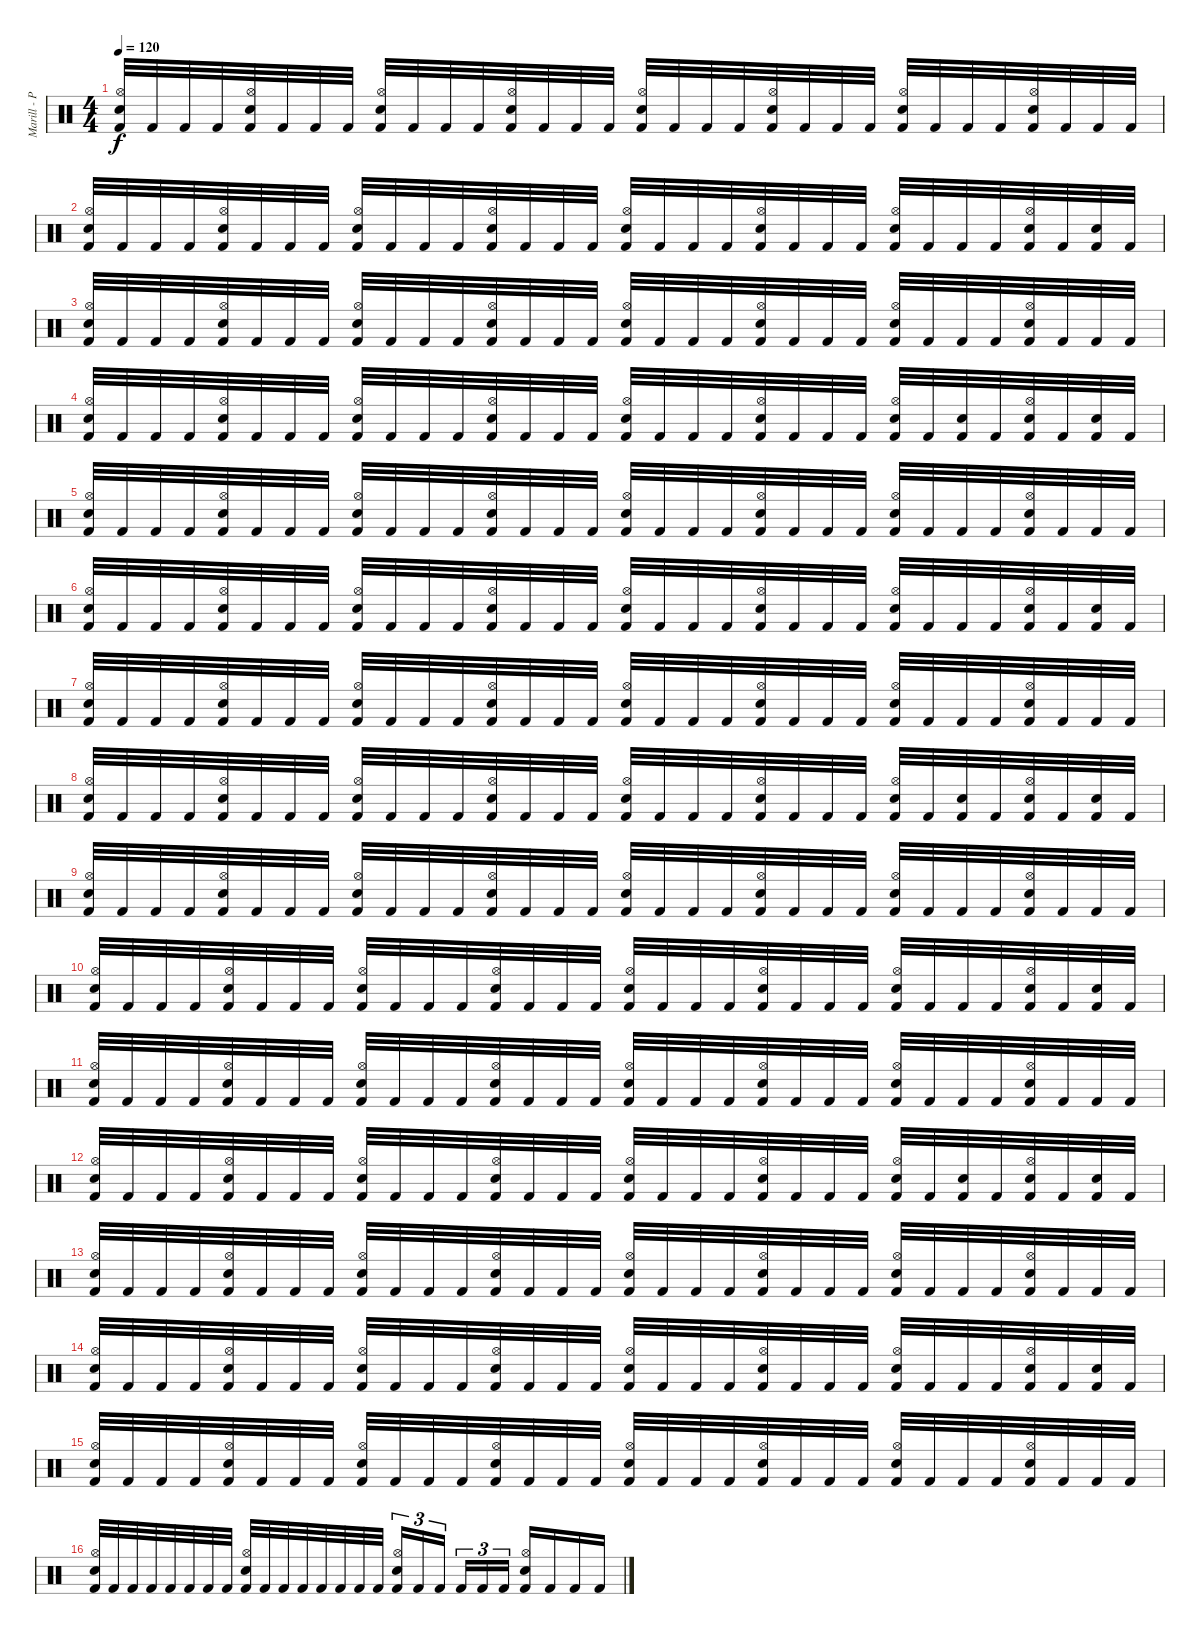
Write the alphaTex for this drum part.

\track ("Marill - Percussion" "Marill - P") {instrument percussion}
\staff {score}
\articulation defaults
\ts (4 4)
\tempo 120
\clef neutral
\ks c
("Snare (hit) 2" "Hi-Hat (open)" "Kick (hit) 2").32{dy f} "Kick (hit) 2".32 "Kick (hit) 2".32 "Kick (hit) 2".32 ("Snare (hit) 2" "Hi-Hat (open)" "Kick (hit) 2").32 "Kick (hit) 2".32 "Kick (hit) 2".32 "Kick (hit) 2".32 ("Snare (hit) 2" "Hi-Hat (open)" "Kick (hit) 2").32 "Kick (hit) 2".32 "Kick (hit) 2".32 "Kick (hit) 2".32 ("Snare (hit) 2" "Hi-Hat (open)" "Kick (hit) 2").32 "Kick (hit) 2".32 "Kick (hit) 2".32 "Kick (hit) 2".32 ("Snare (hit) 2" "Hi-Hat (open)" "Kick (hit) 2").32 "Kick (hit) 2".32 "Kick (hit) 2".32 "Kick (hit) 2".32 ("Snare (hit) 2" "Hi-Hat (open)" "Kick (hit) 2").32 "Kick (hit) 2".32 "Kick (hit) 2".32 "Kick (hit) 2".32 ("Snare (hit) 2" "Hi-Hat (open)" "Kick (hit) 2").32 "Kick (hit) 2".32 "Kick (hit) 2".32 "Kick (hit) 2".32 ("Snare (hit) 2" "Hi-Hat (open)" "Kick (hit) 2").32 "Kick (hit) 2".32 "Kick (hit) 2".32 "Kick (hit) 2".32 |
("Snare (hit) 2" "Hi-Hat (open)" "Kick (hit) 2").32 "Kick (hit) 2".32 "Kick (hit) 2".32 "Kick (hit) 2".32 ("Snare (hit) 2" "Hi-Hat (open)" "Kick (hit) 2").32 "Kick (hit) 2".32 "Kick (hit) 2".32 "Kick (hit) 2".32 ("Snare (hit) 2" "Hi-Hat (open)" "Kick (hit) 2").32 "Kick (hit) 2".32 "Kick (hit) 2".32 "Kick (hit) 2".32 ("Snare (hit) 2" "Hi-Hat (open)" "Kick (hit) 2").32 "Kick (hit) 2".32 "Kick (hit) 2".32 "Kick (hit) 2".32 ("Snare (hit) 2" "Hi-Hat (open)" "Kick (hit) 2").32 "Kick (hit) 2".32 "Kick (hit) 2".32 "Kick (hit) 2".32 ("Snare (hit) 2" "Hi-Hat (open)" "Kick (hit) 2").32 "Kick (hit) 2".32 "Kick (hit) 2".32 "Kick (hit) 2".32 ("Snare (hit) 2" "Hi-Hat (open)" "Kick (hit) 2").32 "Kick (hit) 2".32 "Kick (hit) 2".32 "Kick (hit) 2".32 ("Snare (hit) 2" "Hi-Hat (open)" "Kick (hit) 2").32 "Kick (hit) 2".32 ("Snare (hit) 2" "Kick (hit) 2").32 "Kick (hit) 2".32 |
("Snare (hit) 2" "Hi-Hat (open)" "Kick (hit) 2").32 "Kick (hit) 2".32 "Kick (hit) 2".32 "Kick (hit) 2".32 ("Snare (hit) 2" "Hi-Hat (open)" "Kick (hit) 2").32 "Kick (hit) 2".32 "Kick (hit) 2".32 "Kick (hit) 2".32 ("Snare (hit) 2" "Hi-Hat (open)" "Kick (hit) 2").32 "Kick (hit) 2".32 "Kick (hit) 2".32 "Kick (hit) 2".32 ("Snare (hit) 2" "Hi-Hat (open)" "Kick (hit) 2").32 "Kick (hit) 2".32 "Kick (hit) 2".32 "Kick (hit) 2".32 ("Snare (hit) 2" "Hi-Hat (open)" "Kick (hit) 2").32 "Kick (hit) 2".32 "Kick (hit) 2".32 "Kick (hit) 2".32 ("Snare (hit) 2" "Hi-Hat (open)" "Kick (hit) 2").32 "Kick (hit) 2".32 "Kick (hit) 2".32 "Kick (hit) 2".32 ("Snare (hit) 2" "Hi-Hat (open)" "Kick (hit) 2").32 "Kick (hit) 2".32 "Kick (hit) 2".32 "Kick (hit) 2".32 ("Snare (hit) 2" "Hi-Hat (open)" "Kick (hit) 2").32 "Kick (hit) 2".32 "Kick (hit) 2".32 "Kick (hit) 2".32 |
("Snare (hit) 2" "Hi-Hat (open)" "Kick (hit) 2").32 "Kick (hit) 2".32 "Kick (hit) 2".32 "Kick (hit) 2".32 ("Snare (hit) 2" "Hi-Hat (open)" "Kick (hit) 2").32 "Kick (hit) 2".32 "Kick (hit) 2".32 "Kick (hit) 2".32 ("Snare (hit) 2" "Hi-Hat (open)" "Kick (hit) 2").32 "Kick (hit) 2".32 "Kick (hit) 2".32 "Kick (hit) 2".32 ("Snare (hit) 2" "Hi-Hat (open)" "Kick (hit) 2").32 "Kick (hit) 2".32 "Kick (hit) 2".32 "Kick (hit) 2".32 ("Snare (hit) 2" "Hi-Hat (open)" "Kick (hit) 2").32 "Kick (hit) 2".32 "Kick (hit) 2".32 "Kick (hit) 2".32 ("Snare (hit) 2" "Hi-Hat (open)" "Kick (hit) 2").32 "Kick (hit) 2".32 "Kick (hit) 2".32 "Kick (hit) 2".32 ("Snare (hit) 2" "Hi-Hat (open)" "Kick (hit) 2").32 "Kick (hit) 2".32 ("Snare (hit) 2" "Kick (hit) 2").32 "Kick (hit) 2".32 ("Snare (hit) 2" "Hi-Hat (open)" "Kick (hit) 2").32 "Kick (hit) 2".32 ("Snare (hit) 2" "Kick (hit) 2").32 "Kick (hit) 2".32 |
("Snare (hit) 2" "Hi-Hat (open)" "Kick (hit) 2").32 "Kick (hit) 2".32 "Kick (hit) 2".32 "Kick (hit) 2".32 ("Snare (hit) 2" "Hi-Hat (open)" "Kick (hit) 2").32 "Kick (hit) 2".32 "Kick (hit) 2".32 "Kick (hit) 2".32 ("Snare (hit) 2" "Hi-Hat (open)" "Kick (hit) 2").32 "Kick (hit) 2".32 "Kick (hit) 2".32 "Kick (hit) 2".32 ("Snare (hit) 2" "Hi-Hat (open)" "Kick (hit) 2").32 "Kick (hit) 2".32 "Kick (hit) 2".32 "Kick (hit) 2".32 ("Snare (hit) 2" "Hi-Hat (open)" "Kick (hit) 2").32 "Kick (hit) 2".32 "Kick (hit) 2".32 "Kick (hit) 2".32 ("Snare (hit) 2" "Hi-Hat (open)" "Kick (hit) 2").32 "Kick (hit) 2".32 "Kick (hit) 2".32 "Kick (hit) 2".32 ("Snare (hit) 2" "Hi-Hat (open)" "Kick (hit) 2").32 "Kick (hit) 2".32 "Kick (hit) 2".32 "Kick (hit) 2".32 ("Snare (hit) 2" "Hi-Hat (open)" "Kick (hit) 2").32 "Kick (hit) 2".32 "Kick (hit) 2".32 "Kick (hit) 2".32 |
("Snare (hit) 2" "Hi-Hat (open)" "Kick (hit) 2").32 "Kick (hit) 2".32 "Kick (hit) 2".32 "Kick (hit) 2".32 ("Snare (hit) 2" "Hi-Hat (open)" "Kick (hit) 2").32 "Kick (hit) 2".32 "Kick (hit) 2".32 "Kick (hit) 2".32 ("Snare (hit) 2" "Hi-Hat (open)" "Kick (hit) 2").32 "Kick (hit) 2".32 "Kick (hit) 2".32 "Kick (hit) 2".32 ("Snare (hit) 2" "Hi-Hat (open)" "Kick (hit) 2").32 "Kick (hit) 2".32 "Kick (hit) 2".32 "Kick (hit) 2".32 ("Snare (hit) 2" "Hi-Hat (open)" "Kick (hit) 2").32 "Kick (hit) 2".32 "Kick (hit) 2".32 "Kick (hit) 2".32 ("Snare (hit) 2" "Hi-Hat (open)" "Kick (hit) 2").32 "Kick (hit) 2".32 "Kick (hit) 2".32 "Kick (hit) 2".32 ("Snare (hit) 2" "Hi-Hat (open)" "Kick (hit) 2").32 "Kick (hit) 2".32 "Kick (hit) 2".32 "Kick (hit) 2".32 ("Snare (hit) 2" "Hi-Hat (open)" "Kick (hit) 2").32 "Kick (hit) 2".32 ("Snare (hit) 2" "Kick (hit) 2").32 "Kick (hit) 2".32 |
("Snare (hit) 2" "Hi-Hat (open)" "Kick (hit) 2").32 "Kick (hit) 2".32 "Kick (hit) 2".32 "Kick (hit) 2".32 ("Snare (hit) 2" "Hi-Hat (open)" "Kick (hit) 2").32 "Kick (hit) 2".32 "Kick (hit) 2".32 "Kick (hit) 2".32 ("Snare (hit) 2" "Hi-Hat (open)" "Kick (hit) 2").32 "Kick (hit) 2".32 "Kick (hit) 2".32 "Kick (hit) 2".32 ("Snare (hit) 2" "Hi-Hat (open)" "Kick (hit) 2").32 "Kick (hit) 2".32 "Kick (hit) 2".32 "Kick (hit) 2".32 ("Snare (hit) 2" "Hi-Hat (open)" "Kick (hit) 2").32 "Kick (hit) 2".32 "Kick (hit) 2".32 "Kick (hit) 2".32 ("Snare (hit) 2" "Hi-Hat (open)" "Kick (hit) 2").32 "Kick (hit) 2".32 "Kick (hit) 2".32 "Kick (hit) 2".32 ("Snare (hit) 2" "Hi-Hat (open)" "Kick (hit) 2").32 "Kick (hit) 2".32 "Kick (hit) 2".32 "Kick (hit) 2".32 ("Snare (hit) 2" "Hi-Hat (open)" "Kick (hit) 2").32 "Kick (hit) 2".32 "Kick (hit) 2".32 "Kick (hit) 2".32 |
("Snare (hit) 2" "Hi-Hat (open)" "Kick (hit) 2").32 "Kick (hit) 2".32 "Kick (hit) 2".32 "Kick (hit) 2".32 ("Snare (hit) 2" "Hi-Hat (open)" "Kick (hit) 2").32 "Kick (hit) 2".32 "Kick (hit) 2".32 "Kick (hit) 2".32 ("Snare (hit) 2" "Hi-Hat (open)" "Kick (hit) 2").32 "Kick (hit) 2".32 "Kick (hit) 2".32 "Kick (hit) 2".32 ("Snare (hit) 2" "Hi-Hat (open)" "Kick (hit) 2").32 "Kick (hit) 2".32 "Kick (hit) 2".32 "Kick (hit) 2".32 ("Snare (hit) 2" "Hi-Hat (open)" "Kick (hit) 2").32 "Kick (hit) 2".32 "Kick (hit) 2".32 "Kick (hit) 2".32 ("Snare (hit) 2" "Hi-Hat (open)" "Kick (hit) 2").32 "Kick (hit) 2".32 "Kick (hit) 2".32 "Kick (hit) 2".32 ("Snare (hit) 2" "Hi-Hat (open)" "Kick (hit) 2").32 "Kick (hit) 2".32 ("Snare (hit) 2" "Kick (hit) 2").32 "Kick (hit) 2".32 ("Snare (hit) 2" "Hi-Hat (open)" "Kick (hit) 2").32 "Kick (hit) 2".32 ("Snare (hit) 2" "Kick (hit) 2").32 "Kick (hit) 2".32 |
("Snare (hit) 2" "Hi-Hat (open)" "Kick (hit) 2").32 "Kick (hit) 2".32 "Kick (hit) 2".32 "Kick (hit) 2".32 ("Snare (hit) 2" "Hi-Hat (open)" "Kick (hit) 2").32 "Kick (hit) 2".32 "Kick (hit) 2".32 "Kick (hit) 2".32 ("Snare (hit) 2" "Hi-Hat (open)" "Kick (hit) 2").32 "Kick (hit) 2".32 "Kick (hit) 2".32 "Kick (hit) 2".32 ("Snare (hit) 2" "Hi-Hat (open)" "Kick (hit) 2").32 "Kick (hit) 2".32 "Kick (hit) 2".32 "Kick (hit) 2".32 ("Snare (hit) 2" "Hi-Hat (open)" "Kick (hit) 2").32 "Kick (hit) 2".32 "Kick (hit) 2".32 "Kick (hit) 2".32 ("Snare (hit) 2" "Hi-Hat (open)" "Kick (hit) 2").32 "Kick (hit) 2".32 "Kick (hit) 2".32 "Kick (hit) 2".32 ("Snare (hit) 2" "Hi-Hat (open)" "Kick (hit) 2").32 "Kick (hit) 2".32 "Kick (hit) 2".32 "Kick (hit) 2".32 ("Snare (hit) 2" "Hi-Hat (open)" "Kick (hit) 2").32 "Kick (hit) 2".32 "Kick (hit) 2".32 "Kick (hit) 2".32 |
("Snare (hit) 2" "Hi-Hat (open)" "Kick (hit) 2").32 "Kick (hit) 2".32 "Kick (hit) 2".32 "Kick (hit) 2".32 ("Snare (hit) 2" "Hi-Hat (open)" "Kick (hit) 2").32 "Kick (hit) 2".32 "Kick (hit) 2".32 "Kick (hit) 2".32 ("Snare (hit) 2" "Hi-Hat (open)" "Kick (hit) 2").32 "Kick (hit) 2".32 "Kick (hit) 2".32 "Kick (hit) 2".32 ("Snare (hit) 2" "Hi-Hat (open)" "Kick (hit) 2").32 "Kick (hit) 2".32 "Kick (hit) 2".32 "Kick (hit) 2".32 ("Snare (hit) 2" "Hi-Hat (open)" "Kick (hit) 2").32 "Kick (hit) 2".32 "Kick (hit) 2".32 "Kick (hit) 2".32 ("Snare (hit) 2" "Hi-Hat (open)" "Kick (hit) 2").32 "Kick (hit) 2".32 "Kick (hit) 2".32 "Kick (hit) 2".32 ("Snare (hit) 2" "Hi-Hat (open)" "Kick (hit) 2").32 "Kick (hit) 2".32 "Kick (hit) 2".32 "Kick (hit) 2".32 ("Snare (hit) 2" "Hi-Hat (open)" "Kick (hit) 2").32 "Kick (hit) 2".32 ("Snare (hit) 2" "Kick (hit) 2").32 "Kick (hit) 2".32 |
("Snare (hit) 2" "Hi-Hat (open)" "Kick (hit) 2").32 "Kick (hit) 2".32 "Kick (hit) 2".32 "Kick (hit) 2".32 ("Snare (hit) 2" "Hi-Hat (open)" "Kick (hit) 2").32 "Kick (hit) 2".32 "Kick (hit) 2".32 "Kick (hit) 2".32 ("Snare (hit) 2" "Hi-Hat (open)" "Kick (hit) 2").32 "Kick (hit) 2".32 "Kick (hit) 2".32 "Kick (hit) 2".32 ("Snare (hit) 2" "Hi-Hat (open)" "Kick (hit) 2").32 "Kick (hit) 2".32 "Kick (hit) 2".32 "Kick (hit) 2".32 ("Snare (hit) 2" "Hi-Hat (open)" "Kick (hit) 2").32 "Kick (hit) 2".32 "Kick (hit) 2".32 "Kick (hit) 2".32 ("Snare (hit) 2" "Hi-Hat (open)" "Kick (hit) 2").32 "Kick (hit) 2".32 "Kick (hit) 2".32 "Kick (hit) 2".32 ("Snare (hit) 2" "Hi-Hat (open)" "Kick (hit) 2").32 "Kick (hit) 2".32 "Kick (hit) 2".32 "Kick (hit) 2".32 ("Snare (hit) 2" "Hi-Hat (open)" "Kick (hit) 2").32 "Kick (hit) 2".32 "Kick (hit) 2".32 "Kick (hit) 2".32 |
("Snare (hit) 2" "Hi-Hat (open)" "Kick (hit) 2").32 "Kick (hit) 2".32 "Kick (hit) 2".32 "Kick (hit) 2".32 ("Snare (hit) 2" "Hi-Hat (open)" "Kick (hit) 2").32 "Kick (hit) 2".32 "Kick (hit) 2".32 "Kick (hit) 2".32 ("Snare (hit) 2" "Hi-Hat (open)" "Kick (hit) 2").32 "Kick (hit) 2".32 "Kick (hit) 2".32 "Kick (hit) 2".32 ("Snare (hit) 2" "Hi-Hat (open)" "Kick (hit) 2").32 "Kick (hit) 2".32 "Kick (hit) 2".32 "Kick (hit) 2".32 ("Snare (hit) 2" "Hi-Hat (open)" "Kick (hit) 2").32 "Kick (hit) 2".32 "Kick (hit) 2".32 "Kick (hit) 2".32 ("Snare (hit) 2" "Hi-Hat (open)" "Kick (hit) 2").32 "Kick (hit) 2".32 "Kick (hit) 2".32 "Kick (hit) 2".32 ("Snare (hit) 2" "Hi-Hat (open)" "Kick (hit) 2").32 "Kick (hit) 2".32 ("Snare (hit) 2" "Kick (hit) 2").32 "Kick (hit) 2".32 ("Snare (hit) 2" "Hi-Hat (open)" "Kick (hit) 2").32 "Kick (hit) 2".32 ("Snare (hit) 2" "Kick (hit) 2").32 "Kick (hit) 2".32 |
("Snare (hit) 2" "Hi-Hat (open)" "Kick (hit) 2").32 "Kick (hit) 2".32 "Kick (hit) 2".32 "Kick (hit) 2".32 ("Snare (hit) 2" "Hi-Hat (open)" "Kick (hit) 2").32 "Kick (hit) 2".32 "Kick (hit) 2".32 "Kick (hit) 2".32 ("Snare (hit) 2" "Hi-Hat (open)" "Kick (hit) 2").32 "Kick (hit) 2".32 "Kick (hit) 2".32 "Kick (hit) 2".32 ("Snare (hit) 2" "Hi-Hat (open)" "Kick (hit) 2").32 "Kick (hit) 2".32 "Kick (hit) 2".32 "Kick (hit) 2".32 ("Snare (hit) 2" "Hi-Hat (open)" "Kick (hit) 2").32 "Kick (hit) 2".32 "Kick (hit) 2".32 "Kick (hit) 2".32 ("Snare (hit) 2" "Hi-Hat (open)" "Kick (hit) 2").32 "Kick (hit) 2".32 "Kick (hit) 2".32 "Kick (hit) 2".32 ("Snare (hit) 2" "Hi-Hat (open)" "Kick (hit) 2").32 "Kick (hit) 2".32 "Kick (hit) 2".32 "Kick (hit) 2".32 ("Snare (hit) 2" "Hi-Hat (open)" "Kick (hit) 2").32 "Kick (hit) 2".32 "Kick (hit) 2".32 "Kick (hit) 2".32 |
("Snare (hit) 2" "Hi-Hat (open)" "Kick (hit) 2").32 "Kick (hit) 2".32 "Kick (hit) 2".32 "Kick (hit) 2".32 ("Snare (hit) 2" "Hi-Hat (open)" "Kick (hit) 2").32 "Kick (hit) 2".32 "Kick (hit) 2".32 "Kick (hit) 2".32 ("Snare (hit) 2" "Hi-Hat (open)" "Kick (hit) 2").32 "Kick (hit) 2".32 "Kick (hit) 2".32 "Kick (hit) 2".32 ("Snare (hit) 2" "Hi-Hat (open)" "Kick (hit) 2").32 "Kick (hit) 2".32 "Kick (hit) 2".32 "Kick (hit) 2".32 ("Snare (hit) 2" "Hi-Hat (open)" "Kick (hit) 2").32 "Kick (hit) 2".32 "Kick (hit) 2".32 "Kick (hit) 2".32 ("Snare (hit) 2" "Hi-Hat (open)" "Kick (hit) 2").32 "Kick (hit) 2".32 "Kick (hit) 2".32 "Kick (hit) 2".32 ("Snare (hit) 2" "Hi-Hat (open)" "Kick (hit) 2").32 "Kick (hit) 2".32 "Kick (hit) 2".32 "Kick (hit) 2".32 ("Snare (hit) 2" "Hi-Hat (open)" "Kick (hit) 2").32 "Kick (hit) 2".32 ("Snare (hit) 2" "Kick (hit) 2").32 "Kick (hit) 2".32 |
("Snare (hit) 2" "Hi-Hat (open)" "Kick (hit) 2").32 "Kick (hit) 2".32 "Kick (hit) 2".32 "Kick (hit) 2".32 ("Snare (hit) 2" "Hi-Hat (open)" "Kick (hit) 2").32 "Kick (hit) 2".32 "Kick (hit) 2".32 "Kick (hit) 2".32 ("Snare (hit) 2" "Hi-Hat (open)" "Kick (hit) 2").32 "Kick (hit) 2".32 "Kick (hit) 2".32 "Kick (hit) 2".32 ("Snare (hit) 2" "Hi-Hat (open)" "Kick (hit) 2").32 "Kick (hit) 2".32 "Kick (hit) 2".32 "Kick (hit) 2".32 ("Snare (hit) 2" "Hi-Hat (open)" "Kick (hit) 2").32 "Kick (hit) 2".32 "Kick (hit) 2".32 "Kick (hit) 2".32 ("Snare (hit) 2" "Hi-Hat (open)" "Kick (hit) 2").32 "Kick (hit) 2".32 "Kick (hit) 2".32 "Kick (hit) 2".32 ("Snare (hit) 2" "Hi-Hat (open)" "Kick (hit) 2").32 "Kick (hit) 2".32 "Kick (hit) 2".32 "Kick (hit) 2".32 ("Snare (hit) 2" "Hi-Hat (open)" "Kick (hit) 2").32 "Kick (hit) 2".32 "Kick (hit) 2".32 "Kick (hit) 2".32 |
("Snare (hit) 2" "Hi-Hat (open)" "Kick (hit) 2").32 "Kick (hit) 2".32 "Kick (hit) 2".32 "Kick (hit) 2".32 "Kick (hit) 2".32 "Kick (hit) 2".32 "Kick (hit) 2".32 "Kick (hit) 2".32 ("Snare (hit) 2" "Hi-Hat (open)" "Kick (hit) 2").32 "Kick (hit) 2".32 "Kick (hit) 2".32 "Kick (hit) 2".32 "Kick (hit) 2".32 "Kick (hit) 2".32 "Kick (hit) 2".32 "Kick (hit) 2".32 ("Snare (hit) 2" "Hi-Hat (open)" "Kick (hit) 2").16{tu (3 2)} "Kick (hit) 2".16{tu (3 2)} "Kick (hit) 2".16{tu (3 2) beam splitsecondary} "Kick (hit) 2".16{tu (3 2)} "Kick (hit) 2".16{tu (3 2)} "Kick (hit) 2".16{tu (3 2)} ("Snare (hit) 2" "Hi-Hat (open)" "Kick (hit) 2").16 "Kick (hit) 2".16 "Kick (hit) 2".16 "Kick (hit) 2".16
